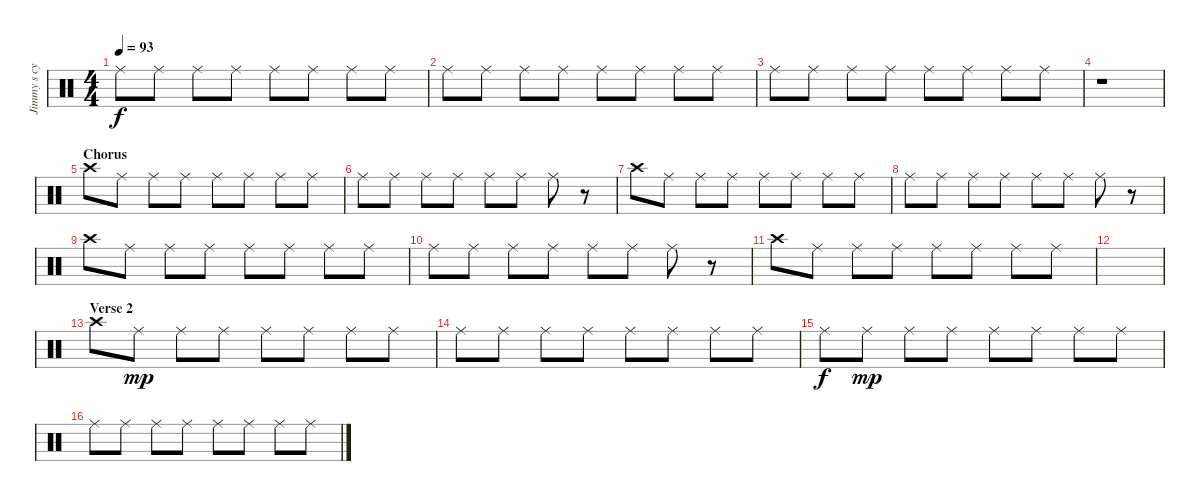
\track ("Jimmy s cymbals" "Jimmy s cy") {instrument percussion}
\staff {score}
\articulation defaults
\ts (4 4)
\tempo 93
\clef neutral
\ks c "Ride (middle)".8{dy f} "Ride (middle)".8 "Ride (middle)".8 "Ride (middle)".8 "Ride (middle)".8 "Ride (middle)".8 "Ride (middle)".8 "Ride (middle)".8
|
"Ride (middle)".8 "Ride (middle)".8 "Ride (middle)".8 "Ride (middle)".8 "Ride (middle)".8 "Ride (middle)".8 "Ride (middle)".8 "Ride (middle)".8 |
"Ride (middle)".8 "Ride (middle)".8 "Ride (middle)".8 "Ride (middle)".8 "Ride (middle)".8 "Ride (middle)".8 "Ride (middle)".8 "Ride (middle)".8 |
r.1 |
\section ("" "Chorus")
"Crash high (hit)".8 "Ride (middle)".8 "Ride (middle)".8 "Ride (middle)".8 "Ride (middle)".8 "Ride (middle)".8 "Ride (middle)".8 "Ride (middle)".8 |
"Ride (middle)".8 "Ride (middle)".8 "Ride (middle)".8 "Ride (middle)".8 "Ride (middle)".8 "Ride (middle)".8 "Ride (middle)".8 r.8 |
"Crash high (hit)".8 "Ride (middle)".8 "Ride (middle)".8 "Ride (middle)".8 "Ride (middle)".8 "Ride (middle)".8 "Ride (middle)".8 "Ride (middle)".8 |
"Ride (middle)".8 "Ride (middle)".8 "Ride (middle)".8 "Ride (middle)".8 "Ride (middle)".8 "Ride (middle)".8 "Ride (middle)".8 r.8 |
"Crash high (hit)".8 "Ride (middle)".8 "Ride (middle)".8 "Ride (middle)".8 "Ride (middle)".8 "Ride (middle)".8 "Ride (middle)".8 "Ride (middle)".8 |
"Ride (middle)".8 "Ride (middle)".8 "Ride (middle)".8 "Ride (middle)".8 "Ride (middle)".8 "Ride (middle)".8 "Ride (middle)".8 r.8 |
"Crash high (hit)".8 "Ride (middle)".8 "Ride (middle)".8 "Ride (middle)".8 "Ride (middle)".8 "Ride (middle)".8 "Ride (middle)".8 "Ride (middle)".8 |
|
\section ("" "Verse 2")
"Crash high (hit)".8 "Ride (middle)".8{dy mp} "Ride (middle)".8 "Ride (middle)".8 "Ride (middle)".8 "Ride (middle)".8 "Ride (middle)".8 "Ride (middle)".8 |
"Ride (middle)".8 "Ride (middle)".8 "Ride (middle)".8 "Ride (middle)".8 "Ride (middle)".8 "Ride (middle)".8 "Ride (middle)".8 "Ride (middle)".8 |
"Ride (middle)".8{dy f} "Ride (middle)".8{dy mp} "Ride (middle)".8 "Ride (middle)".8 "Ride (middle)".8 "Ride (middle)".8 "Ride (middle)".8 "Ride (middle)".8 |
"Ride (middle)".8 "Ride (middle)".8 "Ride (middle)".8 "Ride (middle)".8 "Ride (middle)".8 "Ride (middle)".8 "Ride (middle)".8 "Ride (middle)".8
